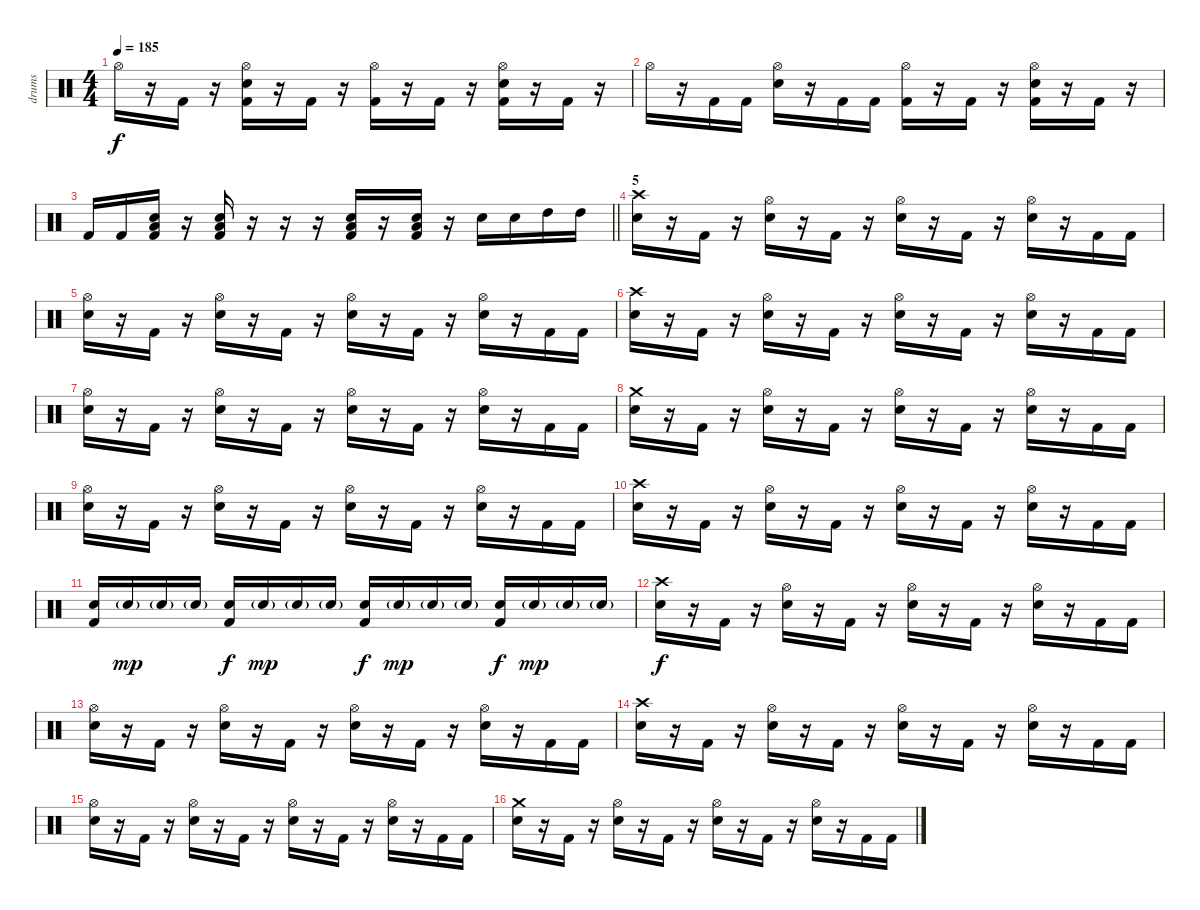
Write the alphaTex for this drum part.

\track ("drums" "drums") {instrument percussion}
\staff {score}
\articulation defaults
\ts (4 4)
\tempo 185
\clef neutral
\ks c "Hi-Hat (open)".16{dy f}
r.16 "Kick (hit) 2".16 r.16 ("Hi-Hat (open)" "Electric Snare (hit)" "Kick (hit) 2").16 r.16 "Kick (hit) 2".16 r.16 ("Hi-Hat (open)" "Kick (hit) 2").16 r.16 "Kick (hit) 2".16 r.16 ("Hi-Hat (open)" "Electric Snare (hit)" "Kick (hit) 2").16 r.16 "Kick (hit) 2".16 r.16 |
"Hi-Hat (open)".16 r.16 "Kick (hit) 2".16 "Kick (hit) 2".16 ("Hi-Hat (open)" "Electric Snare (hit)").16 r.16 "Kick (hit) 2".16 "Kick (hit) 2".16 ("Hi-Hat (open)" "Kick (hit) 2").16 r.16 "Kick (hit) 2".16 r.16 ("Hi-Hat (open)" "Electric Snare (hit)" "Kick (hit) 2").16 r.16 "Kick (hit) 2".16 r.16 |
\barLineRight lightlight "Kick (hit) 2".16 "Kick (hit) 2".16
("Low Floor Tom (hit)" "Electric Snare (hit)" "Kick (hit) 2").16 r.16 ("Low Floor Tom (hit)" "Electric Snare (hit)" "Kick (hit) 2").16 r.16 r.16 r.16 ("Low Floor Tom (hit)" "Electric Snare (hit)" "Kick (hit) 2").16 r.16 ("Low Floor Tom (hit)" "Electric Snare (hit)" "Kick (hit) 2").16 r.16 "Electric Snare (hit)".16 "Electric Snare (hit)".16 "High Tom (hit)".16 "High Tom (hit)".16 |
\section ("" "5")
("Crash high (hit)" "Electric Snare (hit)").16 r.16 "Kick (hit) 2".16 r.16 ("Hi-Hat (open)" "Electric Snare (hit)").16 r.16 "Kick (hit) 2".16 r.16 ("Hi-Hat (open)" "Electric Snare (hit)").16 r.16 "Kick (hit) 2".16 r.16 ("Hi-Hat (open)" "Electric Snare (hit)").16 r.16 "Kick (hit) 2".16 "Kick (hit) 2".16 |
("Hi-Hat (open)" "Electric Snare (hit)").16 r.16 "Kick (hit) 2".16 r.16 ("Hi-Hat (open)" "Electric Snare (hit)").16 r.16 "Kick (hit) 2".16 r.16 ("Hi-Hat (open)" "Electric Snare (hit)").16 r.16 "Kick (hit) 2".16 r.16 ("Hi-Hat (open)" "Electric Snare (hit)").16 r.16 "Kick (hit) 2".16 "Kick (hit) 2".16 |
("Crash high (hit)" "Electric Snare (hit)").16 r.16 "Kick (hit) 2".16 r.16 ("Hi-Hat (open)" "Electric Snare (hit)").16 r.16 "Kick (hit) 2".16 r.16 ("Hi-Hat (open)" "Electric Snare (hit)").16 r.16 "Kick (hit) 2".16 r.16 ("Hi-Hat (open)" "Electric Snare (hit)").16 r.16 "Kick (hit) 2".16 "Kick (hit) 2".16 |
("Hi-Hat (open)" "Electric Snare (hit)").16 r.16 "Kick (hit) 2".16 r.16 ("Hi-Hat (open)" "Electric Snare (hit)").16 r.16 "Kick (hit) 2".16 r.16 ("Hi-Hat (open)" "Electric Snare (hit)").16 r.16 "Kick (hit) 2".16 r.16 ("Hi-Hat (open)" "Electric Snare (hit)").16 r.16 "Kick (hit) 2".16 "Kick (hit) 2".16 |
("Crash medium (hit)" "Electric Snare (hit)").16 r.16 "Kick (hit) 2".16 r.16 ("Hi-Hat (open)" "Electric Snare (hit)").16 r.16 "Kick (hit) 2".16 r.16 ("Hi-Hat (open)" "Electric Snare (hit)").16 r.16 "Kick (hit) 2".16 r.16 ("Hi-Hat (open)" "Electric Snare (hit)").16 r.16 "Kick (hit) 2".16 "Kick (hit) 2".16 |
("Hi-Hat (open)" "Electric Snare (hit)").16 r.16 "Kick (hit) 2".16 r.16 ("Hi-Hat (open)" "Electric Snare (hit)").16 r.16 "Kick (hit) 2".16 r.16 ("Hi-Hat (open)" "Electric Snare (hit)").16 r.16 "Kick (hit) 2".16 r.16 ("Hi-Hat (open)" "Electric Snare (hit)").16 r.16 "Kick (hit) 2".16 "Kick (hit) 2".16 |
("Crash high (hit)" "Electric Snare (hit)").16 r.16 "Kick (hit) 2".16 r.16 ("Hi-Hat (open)" "Electric Snare (hit)").16 r.16 "Kick (hit) 2".16 r.16 ("Hi-Hat (open)" "Electric Snare (hit)").16 r.16 "Kick (hit) 2".16 r.16 ("Hi-Hat (open)" "Electric Snare (hit)").16 r.16 "Kick (hit) 2".16 "Kick (hit) 2".16 |
("Electric Snare (hit)" "Kick (hit) 2").16 "Electric Snare (hit)"{g}.16{dy mp} "Electric Snare (hit)"{g}.16 "Electric Snare (hit)"{g}.16 ("Electric Snare (hit)" "Kick (hit) 2").16{dy f} "Electric Snare (hit)"{g}.16{dy mp} "Electric Snare (hit)"{g}.16 "Electric Snare (hit)"{g}.16 ("Electric Snare (hit)" "Kick (hit) 2").16{dy f} "Electric Snare (hit)"{g}.16{dy mp} "Electric Snare (hit)"{g}.16 "Electric Snare (hit)"{g}.16 ("Electric Snare (hit)" "Kick (hit) 2").16{dy f} "Electric Snare (hit)"{g}.16{dy mp} "Electric Snare (hit)"{g}.16 "Electric Snare (hit)"{g}.16 |
("Crash high (hit)" "Electric Snare (hit)").16{dy f} r.16 "Kick (hit) 2".16 r.16 ("Hi-Hat (open)" "Electric Snare (hit)").16 r.16 "Kick (hit) 2".16 r.16 ("Hi-Hat (open)" "Electric Snare (hit)").16 r.16 "Kick (hit) 2".16 r.16 ("Hi-Hat (open)" "Electric Snare (hit)").16 r.16 "Kick (hit) 2".16 "Kick (hit) 2".16 |
("Hi-Hat (open)" "Electric Snare (hit)").16 r.16 "Kick (hit) 2".16 r.16 ("Hi-Hat (open)" "Electric Snare (hit)").16 r.16 "Kick (hit) 2".16 r.16 ("Hi-Hat (open)" "Electric Snare (hit)").16 r.16 "Kick (hit) 2".16 r.16 ("Hi-Hat (open)" "Electric Snare (hit)").16 r.16 "Kick (hit) 2".16 "Kick (hit) 2".16 |
("Crash high (hit)" "Electric Snare (hit)").16 r.16 "Kick (hit) 2".16 r.16 ("Hi-Hat (open)" "Electric Snare (hit)").16 r.16 "Kick (hit) 2".16 r.16 ("Hi-Hat (open)" "Electric Snare (hit)").16 r.16 "Kick (hit) 2".16 r.16 ("Hi-Hat (open)" "Electric Snare (hit)").16 r.16 "Kick (hit) 2".16 "Kick (hit) 2".16 |
("Hi-Hat (open)" "Electric Snare (hit)").16 r.16 "Kick (hit) 2".16 r.16 ("Hi-Hat (open)" "Electric Snare (hit)").16 r.16 "Kick (hit) 2".16 r.16 ("Hi-Hat (open)" "Electric Snare (hit)").16 r.16 "Kick (hit) 2".16 r.16 ("Hi-Hat (open)" "Electric Snare (hit)").16 r.16 "Kick (hit) 2".16 "Kick (hit) 2".16 |
("Crash medium (hit)" "Electric Snare (hit)").16 r.16 "Kick (hit) 2".16 r.16 ("Hi-Hat (open)" "Electric Snare (hit)").16 r.16 "Kick (hit) 2".16 r.16 ("Hi-Hat (open)" "Electric Snare (hit)").16 r.16 "Kick (hit) 2".16 r.16 ("Hi-Hat (open)" "Electric Snare (hit)").16 r.16 "Kick (hit) 2".16 "Kick (hit) 2".16
